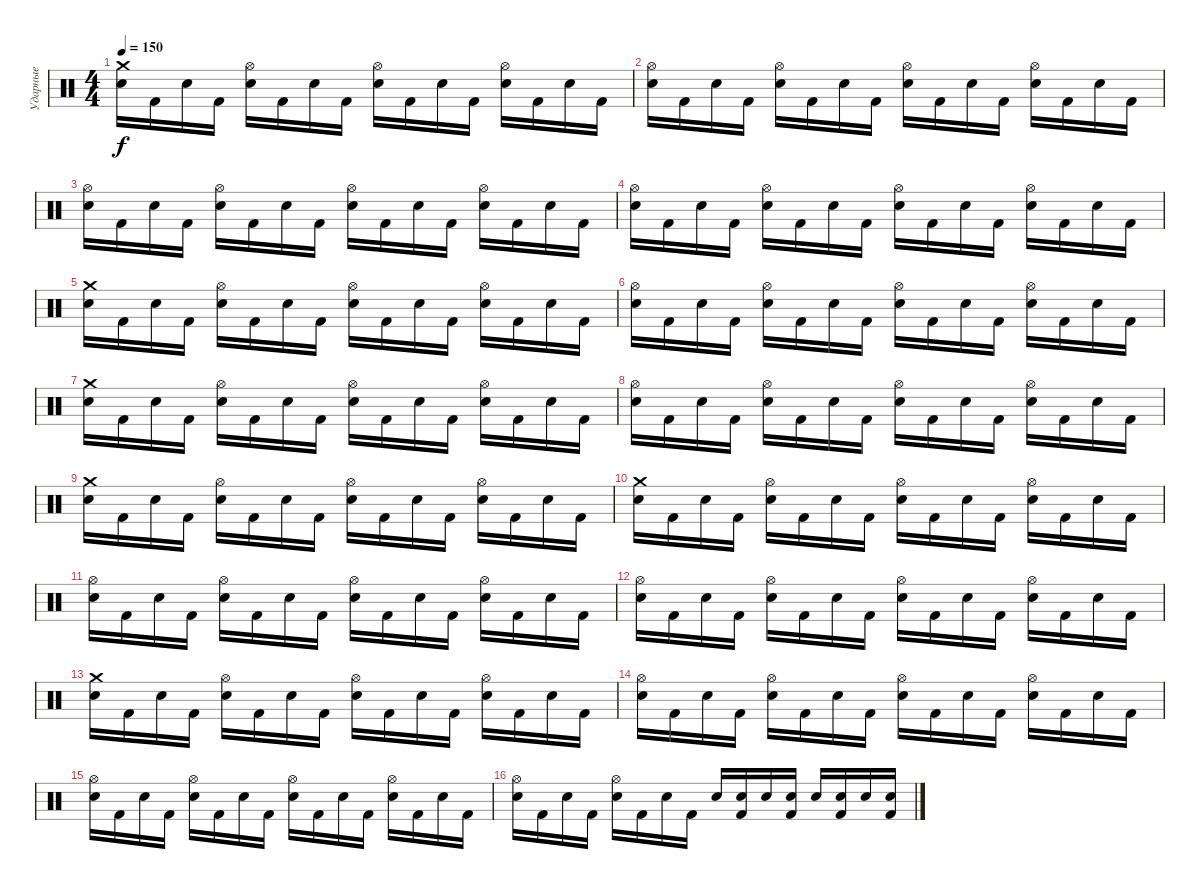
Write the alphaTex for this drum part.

\track ("Ударные" "Ударные") {instrument percussion}
\staff {score}
\articulation defaults
\ts (4 4)
\tempo 150
\clef neutral
\ks c
("Crash medium (hit)" "Electric Snare (hit)").16{dy f} "Kick (hit) 2".16 "Electric Snare (hit)".16 "Kick (hit) 2".16 ("Hi-Hat (open)" "Electric Snare (hit)").16 "Kick (hit) 2".16 "Electric Snare (hit)".16 "Kick (hit) 2".16 ("Hi-Hat (open)" "Electric Snare (hit)").16 "Kick (hit) 2".16 "Electric Snare (hit)".16 "Kick (hit) 2".16 ("Hi-Hat (open)" "Electric Snare (hit)").16 "Kick (hit) 2".16 "Electric Snare (hit)".16 "Kick (hit) 2".16 |
("Hi-Hat (open)" "Electric Snare (hit)").16 "Kick (hit) 2".16 "Electric Snare (hit)".16 "Kick (hit) 2".16 ("Hi-Hat (open)" "Electric Snare (hit)").16 "Kick (hit) 2".16 "Electric Snare (hit)".16 "Kick (hit) 2".16 ("Hi-Hat (open)" "Electric Snare (hit)").16 "Kick (hit) 2".16 "Electric Snare (hit)".16 "Kick (hit) 2".16 ("Hi-Hat (open)" "Electric Snare (hit)").16 "Kick (hit) 2".16 "Electric Snare (hit)".16 "Kick (hit) 2".16 |
("Hi-Hat (open)" "Electric Snare (hit)").16 "Kick (hit) 2".16 "Electric Snare (hit)".16 "Kick (hit) 2".16 ("Hi-Hat (open)" "Electric Snare (hit)").16 "Kick (hit) 2".16 "Electric Snare (hit)".16 "Kick (hit) 2".16 ("Hi-Hat (open)" "Electric Snare (hit)").16 "Kick (hit) 2".16 "Electric Snare (hit)".16 "Kick (hit) 2".16 ("Hi-Hat (open)" "Electric Snare (hit)").16 "Kick (hit) 2".16 "Electric Snare (hit)".16 "Kick (hit) 2".16 |
("Hi-Hat (open)" "Electric Snare (hit)").16 "Kick (hit) 2".16 "Electric Snare (hit)".16 "Kick (hit) 2".16 ("Hi-Hat (open)" "Electric Snare (hit)").16 "Kick (hit) 2".16 "Electric Snare (hit)".16 "Kick (hit) 2".16 ("Hi-Hat (open)" "Electric Snare (hit)").16 "Kick (hit) 2".16 "Electric Snare (hit)".16 "Kick (hit) 2".16 ("Hi-Hat (open)" "Electric Snare (hit)").16 "Kick (hit) 2".16 "Electric Snare (hit)".16 "Kick (hit) 2".16 |
("Crash medium (hit)" "Electric Snare (hit)").16 "Kick (hit) 2".16 "Electric Snare (hit)".16 "Kick (hit) 2".16 ("Hi-Hat (open)" "Electric Snare (hit)").16 "Kick (hit) 2".16 "Electric Snare (hit)".16 "Kick (hit) 2".16 ("Hi-Hat (open)" "Electric Snare (hit)").16 "Kick (hit) 2".16 "Electric Snare (hit)".16 "Kick (hit) 2".16 ("Hi-Hat (open)" "Electric Snare (hit)").16 "Kick (hit) 2".16 "Electric Snare (hit)".16 "Kick (hit) 2".16 |
("Hi-Hat (open)" "Electric Snare (hit)").16 "Kick (hit) 2".16 "Electric Snare (hit)".16 "Kick (hit) 2".16 ("Hi-Hat (open)" "Electric Snare (hit)").16 "Kick (hit) 2".16 "Electric Snare (hit)".16 "Kick (hit) 2".16 ("Hi-Hat (open)" "Electric Snare (hit)").16 "Kick (hit) 2".16 "Electric Snare (hit)".16 "Kick (hit) 2".16 ("Hi-Hat (open)" "Electric Snare (hit)").16 "Kick (hit) 2".16 "Electric Snare (hit)".16 "Kick (hit) 2".16 |
("Crash medium (hit)" "Electric Snare (hit)").16 "Kick (hit) 2".16 "Electric Snare (hit)".16 "Kick (hit) 2".16 ("Hi-Hat (open)" "Electric Snare (hit)").16 "Kick (hit) 2".16 "Electric Snare (hit)".16 "Kick (hit) 2".16 ("Hi-Hat (open)" "Electric Snare (hit)").16 "Kick (hit) 2".16 "Electric Snare (hit)".16 "Kick (hit) 2".16 ("Hi-Hat (open)" "Electric Snare (hit)").16 "Kick (hit) 2".16 "Electric Snare (hit)".16 "Kick (hit) 2".16 |
("Hi-Hat (open)" "Electric Snare (hit)").16 "Kick (hit) 2".16 "Electric Snare (hit)".16 "Kick (hit) 2".16 ("Hi-Hat (open)" "Electric Snare (hit)").16 "Kick (hit) 2".16 "Electric Snare (hit)".16 "Kick (hit) 2".16 ("Hi-Hat (open)" "Electric Snare (hit)").16 "Kick (hit) 2".16 "Electric Snare (hit)".16 "Kick (hit) 2".16 ("Hi-Hat (open)" "Electric Snare (hit)").16 "Kick (hit) 2".16 "Electric Snare (hit)".16 "Kick (hit) 2".16 |
("Crash medium (hit)" "Electric Snare (hit)").16 "Kick (hit) 2".16 "Electric Snare (hit)".16 "Kick (hit) 2".16 ("Hi-Hat (open)" "Electric Snare (hit)").16 "Kick (hit) 2".16 "Electric Snare (hit)".16 "Kick (hit) 2".16 ("Hi-Hat (open)" "Electric Snare (hit)").16 "Kick (hit) 2".16 "Electric Snare (hit)".16 "Kick (hit) 2".16 ("Hi-Hat (open)" "Electric Snare (hit)").16 "Kick (hit) 2".16 "Electric Snare (hit)".16 "Kick (hit) 2".16 |
("Crash medium (hit)" "Electric Snare (hit)").16 "Kick (hit) 2".16 "Electric Snare (hit)".16 "Kick (hit) 2".16 ("Hi-Hat (open)" "Electric Snare (hit)").16 "Kick (hit) 2".16 "Electric Snare (hit)".16 "Kick (hit) 2".16 ("Hi-Hat (open)" "Electric Snare (hit)").16 "Kick (hit) 2".16 "Electric Snare (hit)".16 "Kick (hit) 2".16 ("Hi-Hat (open)" "Electric Snare (hit)").16 "Kick (hit) 2".16 "Electric Snare (hit)".16 "Kick (hit) 2".16 |
("Hi-Hat (open)" "Electric Snare (hit)").16 "Kick (hit) 2".16 "Electric Snare (hit)".16 "Kick (hit) 2".16 ("Hi-Hat (open)" "Electric Snare (hit)").16 "Kick (hit) 2".16 "Electric Snare (hit)".16 "Kick (hit) 2".16 ("Hi-Hat (open)" "Electric Snare (hit)").16 "Kick (hit) 2".16 "Electric Snare (hit)".16 "Kick (hit) 2".16 ("Hi-Hat (open)" "Electric Snare (hit)").16 "Kick (hit) 2".16 "Electric Snare (hit)".16 "Kick (hit) 2".16 |
("Hi-Hat (open)" "Electric Snare (hit)").16 "Kick (hit) 2".16 "Electric Snare (hit)".16 "Kick (hit) 2".16 ("Hi-Hat (open)" "Electric Snare (hit)").16 "Kick (hit) 2".16 "Electric Snare (hit)".16 "Kick (hit) 2".16 ("Hi-Hat (open)" "Electric Snare (hit)").16 "Kick (hit) 2".16 "Electric Snare (hit)".16 "Kick (hit) 2".16 ("Hi-Hat (open)" "Electric Snare (hit)").16 "Kick (hit) 2".16 "Electric Snare (hit)".16 "Kick (hit) 2".16 |
("Crash medium (hit)" "Electric Snare (hit)").16 "Kick (hit) 2".16 "Electric Snare (hit)".16 "Kick (hit) 2".16 ("Hi-Hat (open)" "Electric Snare (hit)").16 "Kick (hit) 2".16 "Electric Snare (hit)".16 "Kick (hit) 2".16 ("Hi-Hat (open)" "Electric Snare (hit)").16 "Kick (hit) 2".16 "Electric Snare (hit)".16 "Kick (hit) 2".16 ("Hi-Hat (open)" "Electric Snare (hit)").16 "Kick (hit) 2".16 "Electric Snare (hit)".16 "Kick (hit) 2".16 |
("Hi-Hat (open)" "Electric Snare (hit)").16 "Kick (hit) 2".16 "Electric Snare (hit)".16 "Kick (hit) 2".16 ("Hi-Hat (open)" "Electric Snare (hit)").16 "Kick (hit) 2".16 "Electric Snare (hit)".16 "Kick (hit) 2".16 ("Hi-Hat (open)" "Electric Snare (hit)").16 "Kick (hit) 2".16 "Electric Snare (hit)".16 "Kick (hit) 2".16 ("Hi-Hat (open)" "Electric Snare (hit)").16 "Kick (hit) 2".16 "Electric Snare (hit)".16 "Kick (hit) 2".16 |
("Hi-Hat (open)" "Electric Snare (hit)").16 "Kick (hit) 2".16 "Electric Snare (hit)".16 "Kick (hit) 2".16 ("Hi-Hat (open)" "Electric Snare (hit)").16 "Kick (hit) 2".16 "Electric Snare (hit)".16 "Kick (hit) 2".16 ("Hi-Hat (open)" "Electric Snare (hit)").16 "Kick (hit) 2".16 "Electric Snare (hit)".16 "Kick (hit) 2".16 ("Hi-Hat (open)" "Electric Snare (hit)").16 "Kick (hit) 2".16 "Electric Snare (hit)".16 "Kick (hit) 2".16 |
("Hi-Hat (open)" "Electric Snare (hit)").16 "Kick (hit) 2".16 "Electric Snare (hit)".16 "Kick (hit) 2".16 ("Hi-Hat (open)" "Electric Snare (hit)").16 "Kick (hit) 2".16 "Electric Snare (hit)".16 "Kick (hit) 2".16 "Electric Snare (hit)".16 ("Electric Snare (hit)" "Kick (hit) 2").16 "Electric Snare (hit)".16 ("Electric Snare (hit)" "Kick (hit) 2").16 "Electric Snare (hit)".16 ("Electric Snare (hit)" "Kick (hit) 2").16 "Electric Snare (hit)".16 ("Electric Snare (hit)" "Kick (hit) 2").16
